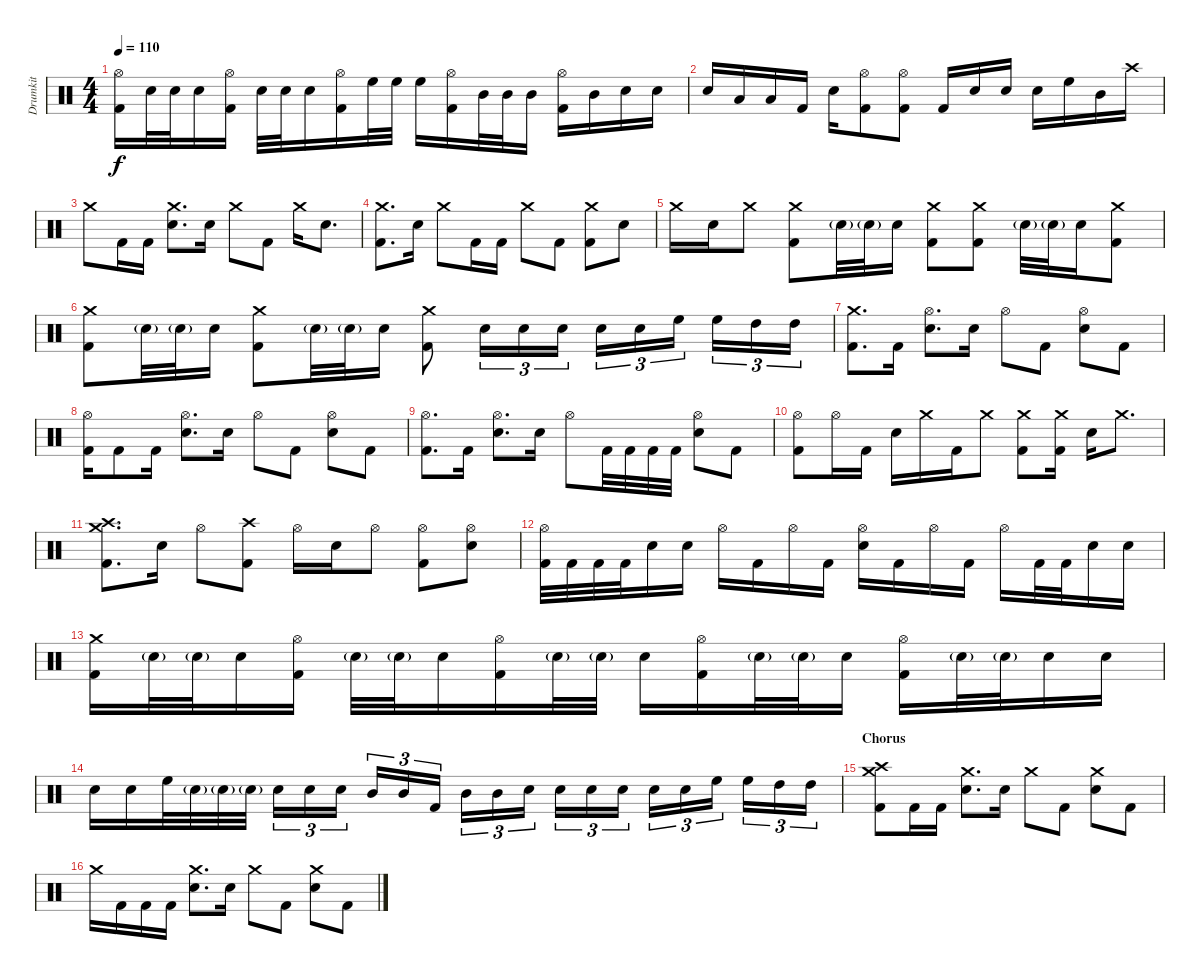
\track ("Drumkit" "Drumkit") {instrument percussion}
\staff {score}
\articulation defaults
\ts (4 4)
\tempo 110
\clef neutral
\ks c
("Hi-Hat (open)" "Kick (hit) 2").16{dy f} "Snare (hit) 2".32 "Snare (hit) 2".32 "Snare (hit) 2".16 ("Hi-Hat (open)" "Kick (hit) 2").16 "Snare (hit) 2".32 "Snare (hit) 2".32 "Snare (hit) 2".16 ("Hi-Hat (open)" "Kick (hit) 2").16 "High Floor Tom (hit)".32 "High Floor Tom (hit)".32 "High Floor Tom (hit)".16 ("Hi-Hat (open)" "Kick (hit) 2").16 "Mid Tom (hit)".32 "Mid Tom (hit)".32 "Mid Tom (hit)".16 ("Hi-Hat (open)" "Kick (hit) 2").16 "Mid Tom (hit)".16 "Snare (hit) 2".16 "Snare (hit) 2".16 |
"Snare (hit) 2".16 "Low Tom (hit)".16 "Low Tom (hit)".16 "Kick (hit) 2".16 "Snare (hit) 2".16 ("Hi-Hat (open)" "Kick (hit) 2").8 ("Hi-Hat (open)" "Kick (hit) 2").8 "Kick (hit) 2".16 "Snare (hit) 2".16 "Snare (hit) 2".16 "Snare (hit) 2".16 "High Floor Tom (hit)".16 "Mid Tom (hit)".16 "Crash high (hit)".16 |
"Crash medium (hit)".8 "Kick (hit) 2".16 "Kick (hit) 2".16 ("Crash medium (hit)" "Snare (hit) 2").8{d} "Snare (hit) 2".16 "Crash medium (hit)".8 "Kick (hit) 2".8 "Crash medium (hit)".16 "Snare (hit) 2".8{d} |
("Crash medium (hit)" "Kick (hit) 2").8{d} "Snare (hit) 2".16 "Crash medium (hit)".8 "Kick (hit) 2".16 "Kick (hit) 2".16 "Crash medium (hit)".8 "Kick (hit) 2".8 ("Crash medium (hit)" "Kick (hit) 2").8 "Snare (hit) 2".8 |
"Crash medium (hit)".16 "Snare (hit) 2".16 "Crash medium (hit)".8 ("Crash medium (hit)" "Kick (hit) 2").8 "Snare (hit) 2"{g}.32 "Snare (hit) 2"{g}.32 "Snare (hit) 2".16 ("Crash medium (hit)" "Kick (hit) 2").8 ("Crash medium (hit)" "Kick (hit) 2").8 "Snare (hit) 2"{g}.32 "Snare (hit) 2"{g}.32 "Snare (hit) 2".16 ("Crash medium (hit)" "Kick (hit) 2").8 |
("Crash medium (hit)" "Kick (hit) 2").8 "Snare (hit) 2"{g}.32 "Snare (hit) 2"{g}.32 "Snare (hit) 2".16 ("Crash medium (hit)" "Kick (hit) 2").8 "Snare (hit) 2"{g}.32 "Snare (hit) 2"{g}.32 "Snare (hit) 2".16 ("Crash medium (hit)" "Kick (hit) 2").8 "Snare (hit) 2".16{tu (3 2)} "Snare (hit) 2".16{tu (3 2)} "Snare (hit) 2".16{tu (3 2)} "Snare (hit) 2".16{tu (3 2)} "Snare (hit) 2".16{tu (3 2)} "High Floor Tom (hit)".16{tu (3 2)} "High Floor Tom (hit)".16{tu (3 2)} "High Tom (hit)".16{tu (3 2)} "High Tom (hit)".16{tu (3 2)} |
("Crash medium (hit)" "Kick (hit) 2").8{d} "Kick (hit) 2".16 ("Hi-Hat (open)" "Snare (hit) 2").8{d} "Snare (hit) 2".16 "Hi-Hat (open)".8 "Kick (hit) 2".8 ("Hi-Hat (open)" "Snare (hit) 2").8 "Kick (hit) 2".8 |
("Hi-Hat (open)" "Kick (hit) 2").16 "Kick (hit) 2".8 "Kick (hit) 2".16 ("Hi-Hat (open)" "Snare (hit) 2").8{d} "Snare (hit) 2".16 "Hi-Hat (open)".8 "Kick (hit) 2".8 ("Hi-Hat (open)" "Snare (hit) 2").8 "Kick (hit) 2".8 |
("Hi-Hat (open)" "Kick (hit) 2").8{d} "Kick (hit) 2".16 ("Hi-Hat (open)" "Snare (hit) 2").8{d} "Snare (hit) 2".16 "Hi-Hat (open)".8 "Kick (hit) 2".32 "Kick (hit) 2".32 "Kick (hit) 2".32 "Kick (hit) 2".32 ("Hi-Hat (open)" "Snare (hit) 2").8 "Kick (hit) 2".8 |
("Hi-Hat (open)" "Kick (hit) 2").8 "Hi-Hat (open)".16 "Kick (hit) 2".16 "Snare (hit) 2".16 "Crash medium (hit)".16 "Kick (hit) 2".16 "Crash medium (hit)".8 ("Crash medium (hit)" "Kick (hit) 2").8 ("Crash medium (hit)" "Kick (hit) 2").16 "Snare (hit) 2".16 "Crash medium (hit)".8{d} |
("Crash medium (hit)" "Crash high (hit)" "Kick (hit) 2").8{d} "Snare (hit) 2".16 "Hi-Hat (open)".8 ("Crash high (hit)" "Kick (hit) 2").8 "Hi-Hat (open)".16 "Snare (hit) 2".16 "Hi-Hat (open)".8 ("Hi-Hat (open)" "Kick (hit) 2").8 ("Hi-Hat (open)" "Snare (hit) 2").8 |
("Hi-Hat (open)" "Kick (hit) 2").32 "Kick (hit) 2".32 "Kick (hit) 2".32 "Kick (hit) 2".32 "Snare (hit) 2".16 "Snare (hit) 2".16 "Hi-Hat (open)".16 "Kick (hit) 2".16 "Hi-Hat (open)".16 "Kick (hit) 2".16 ("Hi-Hat (open)" "Snare (hit) 2").16 "Kick (hit) 2".16 "Hi-Hat (open)".16 "Kick (hit) 2".16 "Hi-Hat (open)".16 "Kick (hit) 2".32 "Kick (hit) 2".32 "Snare (hit) 2".16 "Snare (hit) 2".16 |
("Crash medium (hit)" "Kick (hit) 2").16 "Snare (hit) 2"{g}.32 "Snare (hit) 2"{g}.32 "Snare (hit) 2".16 ("Hi-Hat (open)" "Kick (hit) 2").16 "Snare (hit) 2"{g}.32 "Snare (hit) 2"{g}.32 "Snare (hit) 2".16 ("Hi-Hat (open)" "Kick (hit) 2").16 "Snare (hit) 2"{g}.32 "Snare (hit) 2"{g}.32 "Snare (hit) 2".16 ("Hi-Hat (open)" "Kick (hit) 2").16 "Snare (hit) 2"{g}.32 "Snare (hit) 2"{g}.32 "Snare (hit) 2".16 ("Hi-Hat (open)" "Kick (hit) 2").16 "Snare (hit) 2"{g}.32 "Snare (hit) 2"{g}.32 "Snare (hit) 2".16 "Snare (hit) 2".16 |
"Snare (hit) 2".16 "Snare (hit) 2".16 "High Floor Tom (hit)".32 "Snare (hit) 2"{g}.32 "Snare (hit) 2"{g}.32 "Snare (hit) 2"{g}.32 "Snare (hit) 2".16{tu (3 2)} "Snare (hit) 2".16{tu (3 2)} "Snare (hit) 2".16{tu (3 2)} "Mid Tom (hit)".16{tu (3 2)} "Mid Tom (hit)".16{tu (3 2)} "Kick (hit) 2".16{tu (3 2)} "Mid Tom (hit)".16{tu (3 2)} "Mid Tom (hit)".16{tu (3 2)} "Snare (hit) 2".16{tu (3 2)} "Snare (hit) 2".16{tu (3 2)} "Snare (hit) 2".16{tu (3 2)} "Snare (hit) 2".16{tu (3 2)} "Snare (hit) 2".16{tu (3 2)} "Snare (hit) 2".16{tu (3 2)} "High Floor Tom (hit)".16{tu (3 2)} "High Floor Tom (hit)".16{tu (3 2)} "High Tom (hit)".16{tu (3 2)} "High Tom (hit)".16{tu (3 2)} |
\section ("" "Chorus")
("Crash medium (hit)" "Crash high (hit)" "Kick (hit) 2").8 "Kick (hit) 2".16 "Kick (hit) 2".16 ("Crash medium (hit)" "Snare (hit) 2").8{d} "Snare (hit) 2".16 "Crash medium (hit)".8 "Kick (hit) 2".8 ("Crash medium (hit)" "Snare (hit) 2").8 "Kick (hit) 2".8 |
"Crash medium (hit)".16 "Kick (hit) 2".16 "Kick (hit) 2".16 "Kick (hit) 2".16 ("Crash medium (hit)" "Snare (hit) 2").8{d} "Snare (hit) 2".16 "Crash medium (hit)".8 "Kick (hit) 2".8 ("Crash medium (hit)" "Snare (hit) 2").8 "Kick (hit) 2".8
